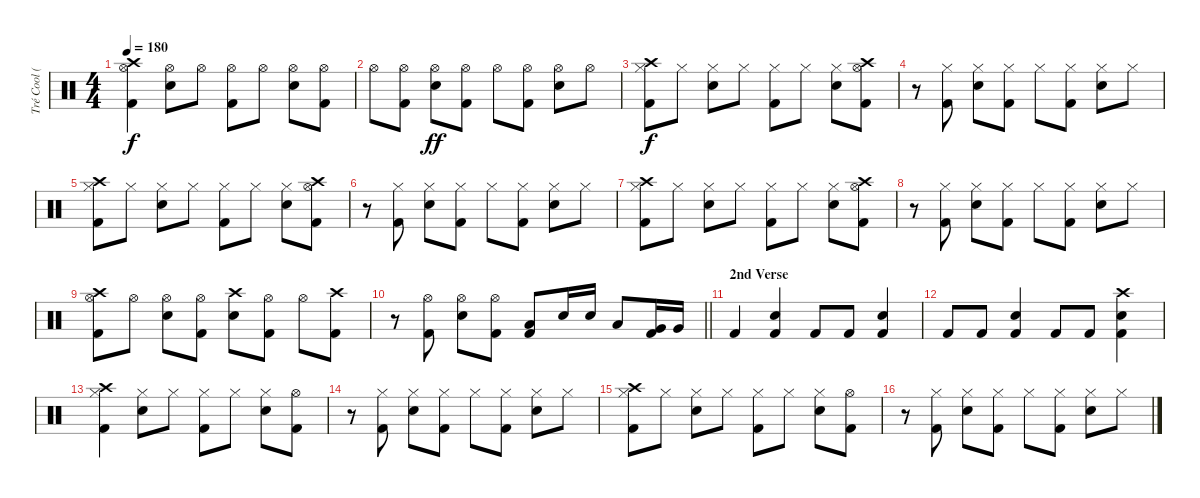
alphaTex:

\track ("Tré Cool (Drums)" "Tré Cool (") {instrument percussion}
\staff {score}
\articulation defaults
\ts (4 4)
\tempo 180
\clef neutral
\ks c
("Crash high (hit)" "Hi-Hat (open)" "Kick (hit) 2").4{dy f} ("Hi-Hat (open)" "Electric Snare (hit)").8 "Hi-Hat (open)".8 ("Hi-Hat (open)" "Kick (hit) 2").8 "Hi-Hat (open)".8 ("Hi-Hat (open)" "Electric Snare (hit)").8 ("Hi-Hat (open)" "Kick (hit) 2").8 |
"Hi-Hat (open)".8 ("Hi-Hat (open)" "Kick (hit) 2").8 ("Hi-Hat (open)" "Electric Snare (hit)").8{dy ff} ("Hi-Hat (open)" "Kick (hit) 2").8 "Hi-Hat (open)".8 ("Hi-Hat (open)" "Kick (hit) 2").8 ("Hi-Hat (open)" "Electric Snare (hit)").8 "Hi-Hat (open)".8 |
("Crash high (hit)" "Hi-Hat (closed)" "Kick (hit) 2").8{dy f} "Hi-Hat (closed)".8 ("Hi-Hat (closed)" "Electric Snare (hit)").8 "Hi-Hat (closed)".8 ("Hi-Hat (closed)" "Kick (hit) 2").8 "Hi-Hat (closed)".8 ("Hi-Hat (closed)" "Electric Snare (hit)").8 ("Crash high (hit)" "Hi-Hat (open)" "Kick (hit) 2").8 |
r.8 ("Hi-Hat (closed)" "Kick (hit) 2").8 ("Hi-Hat (closed)" "Electric Snare (hit)").8 ("Hi-Hat (closed)" "Kick (hit) 2").8 "Hi-Hat (closed)".8 ("Hi-Hat (closed)" "Kick (hit) 2").8 ("Hi-Hat (closed)" "Electric Snare (hit)").8 "Hi-Hat (closed)".8 |
("Crash high (hit)" "Hi-Hat (closed)" "Kick (hit) 2").8 "Hi-Hat (closed)".8 ("Hi-Hat (closed)" "Electric Snare (hit)").8 "Hi-Hat (closed)".8 ("Hi-Hat (closed)" "Kick (hit) 2").8 "Hi-Hat (closed)".8 ("Hi-Hat (closed)" "Electric Snare (hit)").8 ("Crash high (hit)" "Hi-Hat (open)" "Kick (hit) 2").8 |
r.8 ("Hi-Hat (closed)" "Kick (hit) 2").8 ("Hi-Hat (closed)" "Electric Snare (hit)").8 ("Hi-Hat (closed)" "Kick (hit) 2").8 "Hi-Hat (closed)".8 ("Hi-Hat (closed)" "Kick (hit) 2").8 ("Hi-Hat (closed)" "Electric Snare (hit)").8 "Hi-Hat (closed)".8 |
("Crash high (hit)" "Hi-Hat (closed)" "Kick (hit) 2").8 "Hi-Hat (closed)".8 ("Hi-Hat (closed)" "Electric Snare (hit)").8 "Hi-Hat (closed)".8 ("Hi-Hat (closed)" "Kick (hit) 2").8 "Hi-Hat (closed)".8 ("Hi-Hat (closed)" "Electric Snare (hit)").8 ("Crash high (hit)" "Hi-Hat (open)" "Kick (hit) 2").8 |
r.8 ("Hi-Hat (closed)" "Kick (hit) 2").8 ("Hi-Hat (closed)" "Electric Snare (hit)").8 ("Hi-Hat (closed)" "Kick (hit) 2").8 "Hi-Hat (closed)".8 ("Hi-Hat (closed)" "Kick (hit) 2").8 ("Hi-Hat (closed)" "Electric Snare (hit)").8 "Hi-Hat (closed)".8 |
("Crash high (hit)" "Hi-Hat (open)" "Kick (hit) 2").8 "Hi-Hat (open)".8 ("Hi-Hat (open)" "Electric Snare (hit)").8 ("Hi-Hat (open)" "Kick (hit) 2").8 ("Crash high (hit)" "Electric Snare (hit)").8 ("Hi-Hat (open)" "Kick (hit) 2").8 "Hi-Hat (open)".8 ("Crash high (hit)" "Kick (hit) 2").8 |
\barLineRight lightlight
r.8 ("Hi-Hat (open)" "Kick (hit) 2").8 ("Hi-Hat (open)" "Electric Snare (hit)").8 ("Hi-Hat (open)" "Kick (hit) 2").8 ("Low Tom (hit)" "Kick (hit) 2").8 "Electric Snare (hit)".16 "Electric Snare (hit)".16 "Low Tom (hit)".8 ("Very Low Tom (hit)" "Kick (hit) 2").16 "Very Low Tom (hit)".16 |
\section ("" "2nd Verse")
"Kick (hit) 2".4 ("Electric Snare (hit)" "Kick (hit) 2").4 "Kick (hit) 2".8 "Kick (hit) 2".8 ("Electric Snare (hit)" "Kick (hit) 2").4 |
"Kick (hit) 2".8 "Kick (hit) 2".8 ("Electric Snare (hit)" "Kick (hit) 2").4 "Kick (hit) 2".8 "Kick (hit) 2".8 ("Crash high (hit)" "Electric Snare (hit)" "Kick (hit) 2").4 |
("Crash high (hit)" "Hi-Hat (closed)" "Kick (hit) 2").4 ("Hi-Hat (closed)" "Electric Snare (hit)").8 "Hi-Hat (closed)".8 ("Hi-Hat (closed)" "Kick (hit) 2").8 "Hi-Hat (closed)".8 ("Hi-Hat (closed)" "Electric Snare (hit)").8 ("Hi-Hat (open)" "Kick (hit) 2").8 |
r.8 ("Hi-Hat (closed)" "Kick (hit) 2").8 ("Hi-Hat (closed)" "Electric Snare (hit)").8 ("Hi-Hat (closed)" "Kick (hit) 2").8 "Hi-Hat (closed)".8 ("Hi-Hat (closed)" "Kick (hit) 2").8 ("Hi-Hat (closed)" "Electric Snare (hit)").8 "Hi-Hat (closed)".8 |
("Crash high (hit)" "Hi-Hat (closed)" "Kick (hit) 2").8 "Hi-Hat (closed)".8 ("Hi-Hat (closed)" "Electric Snare (hit)").8 "Hi-Hat (closed)".8 ("Hi-Hat (closed)" "Kick (hit) 2").8 "Hi-Hat (closed)".8 ("Hi-Hat (closed)" "Electric Snare (hit)").8 ("Hi-Hat (open)" "Kick (hit) 2").8 |
r.8 ("Hi-Hat (closed)" "Kick (hit) 2").8 ("Hi-Hat (closed)" "Electric Snare (hit)").8 ("Hi-Hat (closed)" "Kick (hit) 2").8 "Hi-Hat (closed)".8 ("Hi-Hat (closed)" "Kick (hit) 2").8 ("Hi-Hat (closed)" "Electric Snare (hit)").8 "Hi-Hat (closed)".8
